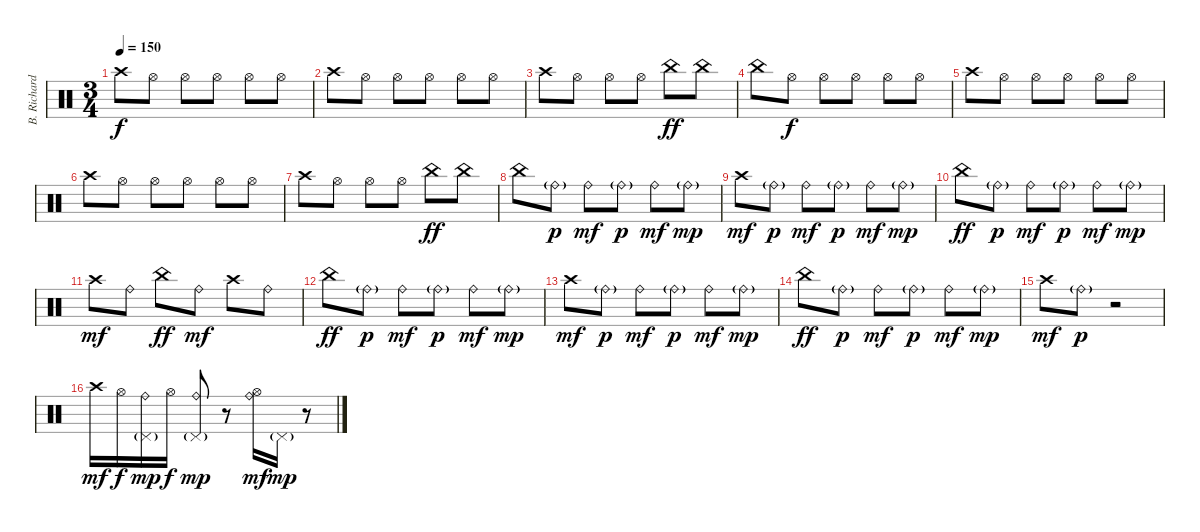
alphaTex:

\track ("B. Richardson Drums" "B. Richard") {instrument percussion}
\staff {score}
\articulation defaults
\ts (3 4)
\tempo 150
\clef neutral
\ks c "Crash high (hit)".8{dy f} "Hi-Hat (open)".8 "Hi-Hat (open)".8 "Hi-Hat (open)".8 "Hi-Hat (open)".8 "Hi-Hat (open)".8
|
"Crash high (hit)".8 "Hi-Hat (open)".8 "Hi-Hat (open)".8 "Hi-Hat (open)".8 "Hi-Hat (open)".8 "Hi-Hat (open)".8 |
"Crash high (hit)".8 "Hi-Hat (open)".8 "Hi-Hat (open)".8 "Hi-Hat (open)".8 "China (hit)".8{dy ff} "China (hit)".8 |
"China (hit)".8 "Hi-Hat (open)".8{dy f} "Hi-Hat (open)".8 "Hi-Hat (open)".8 "Hi-Hat (open)".8 "Hi-Hat (open)".8 |
"Crash high (hit)".8 "Hi-Hat (open)".8 "Hi-Hat (open)".8 "Hi-Hat (open)".8 "Hi-Hat (open)".8 "Hi-Hat (open)".8 |
"Crash high (hit)".8 "Hi-Hat (open)".8 "Hi-Hat (open)".8 "Hi-Hat (open)".8 "Hi-Hat (open)".8 "Hi-Hat (open)".8 |
"Crash high (hit)".8 "Hi-Hat (open)".8 "Hi-Hat (open)".8 "Hi-Hat (open)".8 "China (hit)".8{dy ff} "China (hit)".8 |
"China (hit)".8 "Ride (bell)"{g}.8{dy p} "Ride (bell)".8{dy mf} "Ride (bell)"{g}.8{dy p} "Ride (bell)".8{dy mf} "Ride (bell)"{g}.8{dy mp} |
"Crash high (hit)".8{dy mf} "Ride (bell)"{g}.8{dy p} "Ride (bell)".8{dy mf} "Ride (bell)"{g}.8{dy p} "Ride (bell)".8{dy mf} "Ride (bell)"{g}.8{dy mp} |
"China (hit)".8{dy ff} "Ride (bell)"{g}.8{dy p} "Ride (bell)".8{dy mf} "Ride (bell)"{g}.8{dy p} "Ride (bell)".8{dy mf} "Ride (bell)"{g}.8{dy mp} |
"Crash high (hit)".8{dy mf} "Ride (bell)".8 "China (hit)".8{dy ff} "Ride (bell)".8{dy mf} "Crash high (hit)".8 "Ride (bell)".8 |
"China (hit)".8{dy ff} "Ride (bell)"{g}.8{dy p} "Ride (bell)".8{dy mf} "Ride (bell)"{g}.8{dy p} "Ride (bell)".8{dy mf} "Ride (bell)"{g}.8{dy mp} |
"Crash high (hit)".8{dy mf} "Ride (bell)"{g}.8{dy p} "Ride (bell)".8{dy mf} "Ride (bell)"{g}.8{dy p} "Ride (bell)".8{dy mf} "Ride (bell)"{g}.8{dy mp} |
"China (hit)".8{dy ff} "Ride (bell)"{g}.8{dy p} "Ride (bell)".8{dy mf} "Ride (bell)"{g}.8{dy p} "Ride (bell)".8{dy mf} "Ride (bell)"{g}.8{dy mp} |
"Crash high (hit)".8{dy mf} "Ride (bell)"{g}.8{dy p} r.2 |
"Crash high (hit)".16{dy mf} "Hi-Hat (open)".16{dy f} ("Ride (bell)" "Pedal Hi-Hat (hit)"{g}).16{dy mp} "Hi-Hat (open)".16{dy f} ("Ride (bell)" "Pedal Hi-Hat (hit)"{g}).8{dy mp} r.8 ("Hi-Hat (open)" "Ride (bell)").16{dy mf} "Pedal Hi-Hat (hit)"{g}.16{dy mp} r.8
